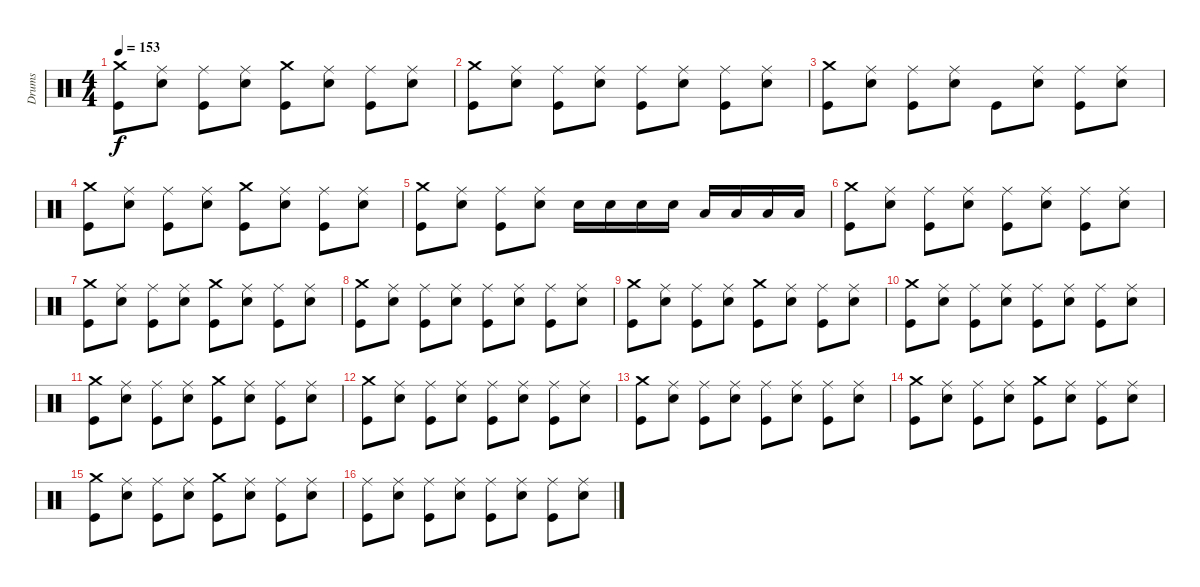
\track ("Drums" "Drums") {instrument percussion}
\staff {score}
\articulation defaults
\ts (4 4)
\tempo 153
\clef neutral
\ks c
("Crash medium (hit)" "Kick (hit)").8{dy f} ("Ride (middle)" "Snare (hit) 2").8 ("Ride (middle)" "Kick (hit)").8 ("Ride (middle)" "Snare (hit) 2").8 ("Crash medium (hit)" "Kick (hit)").8 ("Ride (middle)" "Snare (hit) 2").8 ("Ride (middle)" "Kick (hit)").8 ("Ride (middle)" "Snare (hit) 2").8 |
("Crash medium (hit)" "Kick (hit)").8 ("Ride (middle)" "Snare (hit) 2").8 ("Ride (middle)" "Kick (hit)").8 ("Ride (middle)" "Snare (hit) 2").8 ("Ride (middle)" "Kick (hit)").8 ("Ride (middle)" "Snare (hit) 2").8 ("Ride (middle)" "Kick (hit)").8 ("Ride (middle)" "Snare (hit) 2").8 |
("Crash medium (hit)" "Kick (hit)").8 ("Ride (middle)" "Snare (hit) 2").8 ("Ride (middle)" "Kick (hit)").8 ("Ride (middle)" "Snare (hit) 2").8 "Kick (hit)".8 ("Ride (middle)" "Snare (hit) 2").8 ("Ride (middle)" "Kick (hit)").8 ("Ride (middle)" "Snare (hit) 2").8 |
("Crash medium (hit)" "Kick (hit)").8 ("Ride (middle)" "Snare (hit) 2").8 ("Ride (middle)" "Kick (hit)").8 ("Ride (middle)" "Snare (hit) 2").8 ("Crash medium (hit)" "Kick (hit)").8 ("Ride (middle)" "Snare (hit) 2").8 ("Ride (middle)" "Kick (hit)").8 ("Ride (middle)" "Snare (hit) 2").8 |
("Crash medium (hit)" "Kick (hit)").8 ("Ride (middle)" "Snare (hit) 2").8 ("Ride (middle)" "Kick (hit)").8 ("Ride (middle)" "Snare (hit) 2").8 "Snare (hit) 2".16 "Snare (hit) 2".16 "Snare (hit) 2".16 "Snare (hit) 2".16 "Low Tom (hit)".16 "Low Tom (hit)".16 "Low Tom (hit)".16 "Low Tom (hit)".16 |
("Crash medium (hit)" "Kick (hit)").8 ("Ride (middle)" "Snare (hit) 2").8 ("Ride (middle)" "Kick (hit)").8 ("Ride (middle)" "Snare (hit) 2").8 ("Ride (middle)" "Kick (hit)").8 ("Ride (middle)" "Snare (hit) 2").8 ("Ride (middle)" "Kick (hit)").8 ("Ride (middle)" "Snare (hit) 2").8 |
("Crash medium (hit)" "Kick (hit)").8 ("Ride (middle)" "Snare (hit) 2").8 ("Ride (middle)" "Kick (hit)").8 ("Ride (middle)" "Snare (hit) 2").8 ("Crash medium (hit)" "Kick (hit)").8 ("Ride (middle)" "Snare (hit) 2").8 ("Ride (middle)" "Kick (hit)").8 ("Ride (middle)" "Snare (hit) 2").8 |
("Crash medium (hit)" "Kick (hit)").8 ("Ride (middle)" "Snare (hit) 2").8 ("Ride (middle)" "Kick (hit)").8 ("Ride (middle)" "Snare (hit) 2").8 ("Ride (middle)" "Kick (hit)").8 ("Ride (middle)" "Snare (hit) 2").8 ("Ride (middle)" "Kick (hit)").8 ("Ride (middle)" "Snare (hit) 2").8 |
("Crash medium (hit)" "Kick (hit)").8 ("Ride (middle)" "Snare (hit) 2").8 ("Ride (middle)" "Kick (hit)").8 ("Ride (middle)" "Snare (hit) 2").8 ("Crash medium (hit)" "Kick (hit)").8 ("Ride (middle)" "Snare (hit) 2").8 ("Ride (middle)" "Kick (hit)").8 ("Ride (middle)" "Snare (hit) 2").8 |
("Crash medium (hit)" "Kick (hit)").8 ("Ride (middle)" "Snare (hit) 2").8 ("Ride (middle)" "Kick (hit)").8 ("Ride (middle)" "Snare (hit) 2").8 ("Ride (middle)" "Kick (hit)").8 ("Ride (middle)" "Snare (hit) 2").8 ("Ride (middle)" "Kick (hit)").8 ("Ride (middle)" "Snare (hit) 2").8 |
("Crash medium (hit)" "Kick (hit)").8 ("Ride (middle)" "Snare (hit) 2").8 ("Ride (middle)" "Kick (hit)").8 ("Ride (middle)" "Snare (hit) 2").8 ("Crash medium (hit)" "Kick (hit)").8 ("Ride (middle)" "Snare (hit) 2").8 ("Ride (middle)" "Kick (hit)").8 ("Ride (middle)" "Snare (hit) 2").8 |
("Crash medium (hit)" "Kick (hit)").8 ("Ride (middle)" "Snare (hit) 2").8 ("Ride (middle)" "Kick (hit)").8 ("Ride (middle)" "Snare (hit) 2").8 ("Ride (middle)" "Kick (hit)").8 ("Ride (middle)" "Snare (hit) 2").8 ("Ride (middle)" "Kick (hit)").8 ("Ride (middle)" "Snare (hit) 2").8 |
("Crash medium (hit)" "Kick (hit)").8 ("Ride (middle)" "Snare (hit) 2").8 ("Ride (middle)" "Kick (hit)").8 ("Ride (middle)" "Snare (hit) 2").8 ("Ride (middle)" "Kick (hit)").8 ("Ride (middle)" "Snare (hit) 2").8 ("Ride (middle)" "Kick (hit)").8 ("Ride (middle)" "Snare (hit) 2").8 |
("Crash medium (hit)" "Kick (hit)").8 ("Ride (middle)" "Snare (hit) 2").8 ("Ride (middle)" "Kick (hit)").8 ("Ride (middle)" "Snare (hit) 2").8 ("Crash medium (hit)" "Kick (hit)").8 ("Ride (middle)" "Snare (hit) 2").8 ("Ride (middle)" "Kick (hit)").8 ("Ride (middle)" "Snare (hit) 2").8 |
("Crash medium (hit)" "Kick (hit)").8 ("Ride (middle)" "Snare (hit) 2").8 ("Ride (middle)" "Kick (hit)").8 ("Ride (middle)" "Snare (hit) 2").8 ("Crash medium (hit)" "Kick (hit)").8 ("Ride (middle)" "Snare (hit) 2").8 ("Ride (middle)" "Kick (hit)").8 ("Ride (middle)" "Snare (hit) 2").8 |
("Ride (middle)" "Kick (hit)").8 ("Ride (middle)" "Snare (hit) 2").8 ("Ride (middle)" "Kick (hit)").8 ("Ride (middle)" "Snare (hit) 2").8 ("Ride (middle)" "Kick (hit)").8 ("Ride (middle)" "Snare (hit) 2").8 ("Ride (middle)" "Kick (hit)").8 ("Ride (middle)" "Snare (hit) 2").8
